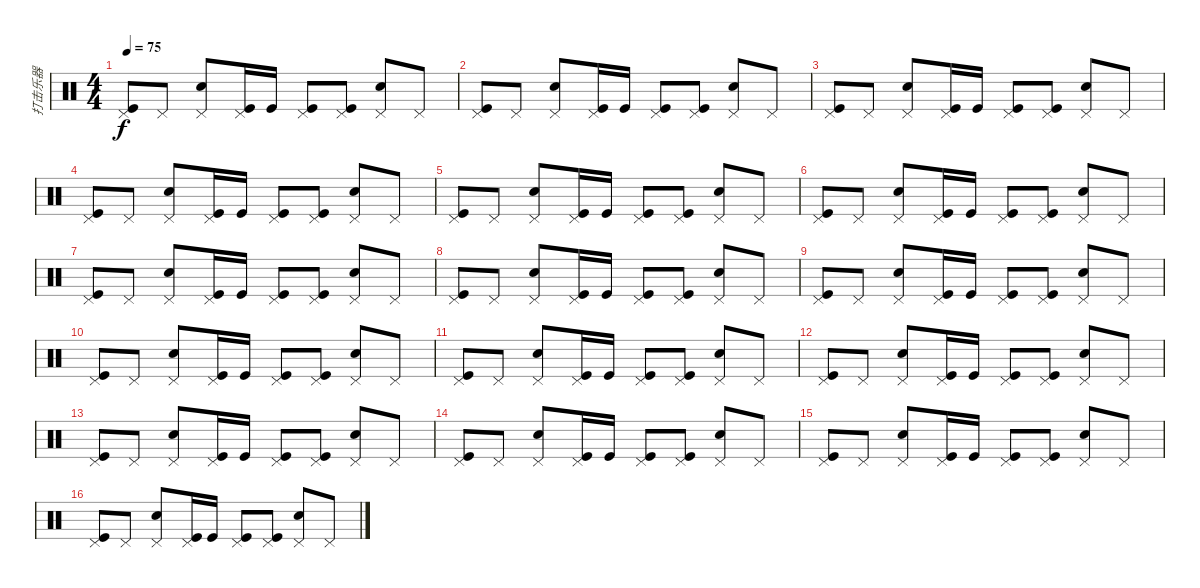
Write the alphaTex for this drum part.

\track ("打击乐器" "打击乐器") {instrument percussion}
\staff {score}
\articulation defaults
\ts (4 4)
\tempo 75
\clef neutral
\ks c
("Pedal Hi-Hat (hit)" "Kick (hit)").8{dy f} "Pedal Hi-Hat (hit)".8 ("Pedal Hi-Hat (hit)" "Electric Snare (hit)").8 ("Pedal Hi-Hat (hit)" "Kick (hit)").16 "Kick (hit)".16 ("Pedal Hi-Hat (hit)" "Kick (hit)").8 ("Pedal Hi-Hat (hit)" "Kick (hit)").8 ("Pedal Hi-Hat (hit)" "Electric Snare (hit)").8 "Pedal Hi-Hat (hit)".8 |
("Pedal Hi-Hat (hit)" "Kick (hit)").8 "Pedal Hi-Hat (hit)".8 ("Pedal Hi-Hat (hit)" "Electric Snare (hit)").8 ("Pedal Hi-Hat (hit)" "Kick (hit)").16 "Kick (hit)".16 ("Pedal Hi-Hat (hit)" "Kick (hit)").8 ("Pedal Hi-Hat (hit)" "Kick (hit)").8 ("Pedal Hi-Hat (hit)" "Electric Snare (hit)").8 "Pedal Hi-Hat (hit)".8 |
("Pedal Hi-Hat (hit)" "Kick (hit)").8 "Pedal Hi-Hat (hit)".8 ("Pedal Hi-Hat (hit)" "Electric Snare (hit)").8 ("Pedal Hi-Hat (hit)" "Kick (hit)").16 "Kick (hit)".16 ("Pedal Hi-Hat (hit)" "Kick (hit)").8 ("Pedal Hi-Hat (hit)" "Kick (hit)").8 ("Pedal Hi-Hat (hit)" "Electric Snare (hit)").8 "Pedal Hi-Hat (hit)".8 |
("Pedal Hi-Hat (hit)" "Kick (hit)").8 "Pedal Hi-Hat (hit)".8 ("Pedal Hi-Hat (hit)" "Electric Snare (hit)").8 ("Pedal Hi-Hat (hit)" "Kick (hit)").16 "Kick (hit)".16 ("Pedal Hi-Hat (hit)" "Kick (hit)").8 ("Pedal Hi-Hat (hit)" "Kick (hit)").8 ("Pedal Hi-Hat (hit)" "Electric Snare (hit)").8 "Pedal Hi-Hat (hit)".8 |
("Pedal Hi-Hat (hit)" "Kick (hit)").8 "Pedal Hi-Hat (hit)".8 ("Pedal Hi-Hat (hit)" "Electric Snare (hit)").8 ("Pedal Hi-Hat (hit)" "Kick (hit)").16 "Kick (hit)".16 ("Pedal Hi-Hat (hit)" "Kick (hit)").8 ("Pedal Hi-Hat (hit)" "Kick (hit)").8 ("Pedal Hi-Hat (hit)" "Electric Snare (hit)").8 "Pedal Hi-Hat (hit)".8 |
("Pedal Hi-Hat (hit)" "Kick (hit)").8 "Pedal Hi-Hat (hit)".8 ("Pedal Hi-Hat (hit)" "Electric Snare (hit)").8 ("Pedal Hi-Hat (hit)" "Kick (hit)").16 "Kick (hit)".16 ("Pedal Hi-Hat (hit)" "Kick (hit)").8 ("Pedal Hi-Hat (hit)" "Kick (hit)").8 ("Pedal Hi-Hat (hit)" "Electric Snare (hit)").8 "Pedal Hi-Hat (hit)".8 |
("Pedal Hi-Hat (hit)" "Kick (hit)").8 "Pedal Hi-Hat (hit)".8 ("Pedal Hi-Hat (hit)" "Electric Snare (hit)").8 ("Pedal Hi-Hat (hit)" "Kick (hit)").16 "Kick (hit)".16 ("Pedal Hi-Hat (hit)" "Kick (hit)").8 ("Pedal Hi-Hat (hit)" "Kick (hit)").8 ("Pedal Hi-Hat (hit)" "Electric Snare (hit)").8 "Pedal Hi-Hat (hit)".8 |
("Pedal Hi-Hat (hit)" "Kick (hit)").8 "Pedal Hi-Hat (hit)".8 ("Pedal Hi-Hat (hit)" "Electric Snare (hit)").8 ("Pedal Hi-Hat (hit)" "Kick (hit)").16 "Kick (hit)".16 ("Pedal Hi-Hat (hit)" "Kick (hit)").8 ("Pedal Hi-Hat (hit)" "Kick (hit)").8 ("Pedal Hi-Hat (hit)" "Electric Snare (hit)").8 "Pedal Hi-Hat (hit)".8 |
("Pedal Hi-Hat (hit)" "Kick (hit)").8 "Pedal Hi-Hat (hit)".8 ("Pedal Hi-Hat (hit)" "Electric Snare (hit)").8 ("Pedal Hi-Hat (hit)" "Kick (hit)").16 "Kick (hit)".16 ("Pedal Hi-Hat (hit)" "Kick (hit)").8 ("Pedal Hi-Hat (hit)" "Kick (hit)").8 ("Pedal Hi-Hat (hit)" "Electric Snare (hit)").8 "Pedal Hi-Hat (hit)".8 |
("Pedal Hi-Hat (hit)" "Kick (hit)").8 "Pedal Hi-Hat (hit)".8 ("Pedal Hi-Hat (hit)" "Electric Snare (hit)").8 ("Pedal Hi-Hat (hit)" "Kick (hit)").16 "Kick (hit)".16 ("Pedal Hi-Hat (hit)" "Kick (hit)").8 ("Pedal Hi-Hat (hit)" "Kick (hit)").8 ("Pedal Hi-Hat (hit)" "Electric Snare (hit)").8 "Pedal Hi-Hat (hit)".8 |
("Pedal Hi-Hat (hit)" "Kick (hit)").8 "Pedal Hi-Hat (hit)".8 ("Pedal Hi-Hat (hit)" "Electric Snare (hit)").8 ("Pedal Hi-Hat (hit)" "Kick (hit)").16 "Kick (hit)".16 ("Pedal Hi-Hat (hit)" "Kick (hit)").8 ("Pedal Hi-Hat (hit)" "Kick (hit)").8 ("Pedal Hi-Hat (hit)" "Electric Snare (hit)").8 "Pedal Hi-Hat (hit)".8 |
("Pedal Hi-Hat (hit)" "Kick (hit)").8 "Pedal Hi-Hat (hit)".8 ("Pedal Hi-Hat (hit)" "Electric Snare (hit)").8 ("Pedal Hi-Hat (hit)" "Kick (hit)").16 "Kick (hit)".16 ("Pedal Hi-Hat (hit)" "Kick (hit)").8 ("Pedal Hi-Hat (hit)" "Kick (hit)").8 ("Pedal Hi-Hat (hit)" "Electric Snare (hit)").8 "Pedal Hi-Hat (hit)".8 |
("Pedal Hi-Hat (hit)" "Kick (hit)").8 "Pedal Hi-Hat (hit)".8 ("Pedal Hi-Hat (hit)" "Electric Snare (hit)").8 ("Pedal Hi-Hat (hit)" "Kick (hit)").16 "Kick (hit)".16 ("Pedal Hi-Hat (hit)" "Kick (hit)").8 ("Pedal Hi-Hat (hit)" "Kick (hit)").8 ("Pedal Hi-Hat (hit)" "Electric Snare (hit)").8 "Pedal Hi-Hat (hit)".8 |
("Pedal Hi-Hat (hit)" "Kick (hit)").8 "Pedal Hi-Hat (hit)".8 ("Pedal Hi-Hat (hit)" "Electric Snare (hit)").8 ("Pedal Hi-Hat (hit)" "Kick (hit)").16 "Kick (hit)".16 ("Pedal Hi-Hat (hit)" "Kick (hit)").8 ("Pedal Hi-Hat (hit)" "Kick (hit)").8 ("Pedal Hi-Hat (hit)" "Electric Snare (hit)").8 "Pedal Hi-Hat (hit)".8 |
("Pedal Hi-Hat (hit)" "Kick (hit)").8 "Pedal Hi-Hat (hit)".8 ("Pedal Hi-Hat (hit)" "Electric Snare (hit)").8 ("Pedal Hi-Hat (hit)" "Kick (hit)").16 "Kick (hit)".16 ("Pedal Hi-Hat (hit)" "Kick (hit)").8 ("Pedal Hi-Hat (hit)" "Kick (hit)").8 ("Pedal Hi-Hat (hit)" "Electric Snare (hit)").8 "Pedal Hi-Hat (hit)".8 |
("Pedal Hi-Hat (hit)" "Kick (hit)").8 "Pedal Hi-Hat (hit)".8 ("Pedal Hi-Hat (hit)" "Electric Snare (hit)").8 ("Pedal Hi-Hat (hit)" "Kick (hit)").16 "Kick (hit)".16 ("Pedal Hi-Hat (hit)" "Kick (hit)").8 ("Pedal Hi-Hat (hit)" "Kick (hit)").8 ("Pedal Hi-Hat (hit)" "Electric Snare (hit)").8 "Pedal Hi-Hat (hit)".8
